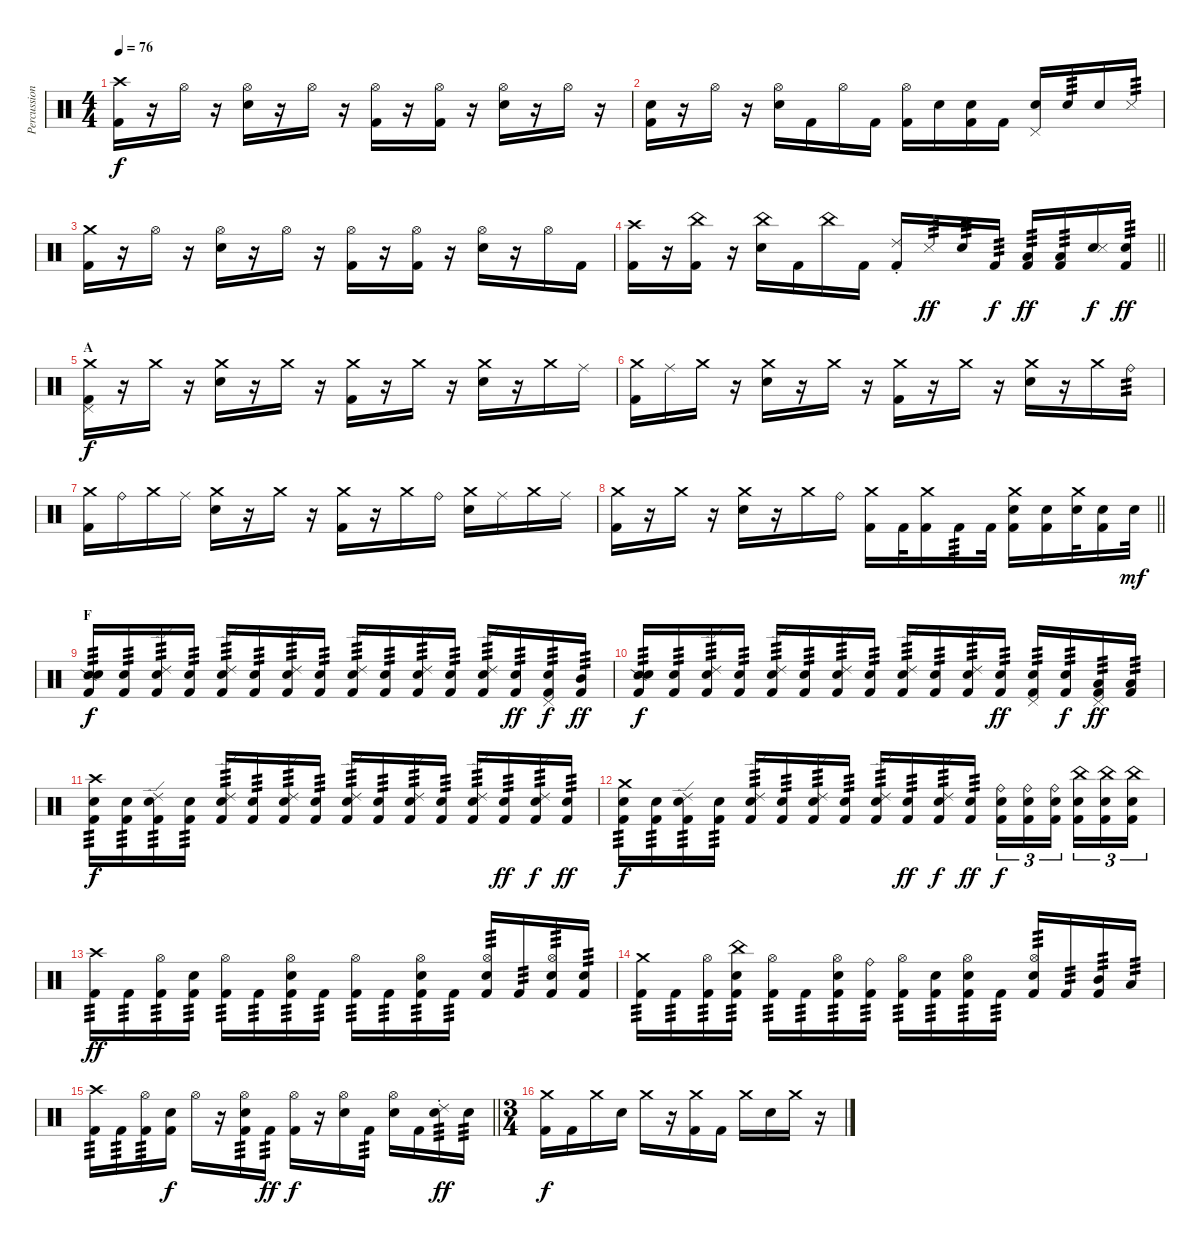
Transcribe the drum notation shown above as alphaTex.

\track ("Percussion" "Percussion") {instrument percussion}
\staff {score}
\articulation defaults
\ts (4 4)
\tempo 76
\clef neutral
\ks c
("Crash high (hit)" "Kick (hit) 2").16{dy f} r.16 "Hi-Hat (open)".16 r.16 ("Hi-Hat (open)" "Snare (hit) 2").16 r.16 "Hi-Hat (open)".16 r.16 ("Hi-Hat (open)" "Kick (hit) 2").16 r.16 ("Hi-Hat (open)" "Kick (hit) 2").16 r.16 ("Hi-Hat (open)" "Snare (hit) 2").16 r.16 "Hi-Hat (open)".16 r.16 |
("Snare (hit)" "Kick (hit) 2").16 r.16 "Hi-Hat (open)".16 r.16 ("Hi-Hat (open)" "Snare (hit) 2").16 "Kick (hit) 2".16 "Hi-Hat (open)".16 "Kick (hit) 2".16 ("Hi-Hat (open)" "Kick (hit) 2").16 "Snare (hit) 2".16 ("Snare (hit)" "Kick (hit) 2").16 "Kick (hit) 2".16 ("Pedal Hi-Hat (hit)" "Snare (hit) 2").16 "Snare (hit)".16{tp 3} "Snare (hit) 2".16 "Metronome (hit)".16{tp 3} |
("Crash medium (hit)" "Kick (hit) 2").16 r.16 "Hi-Hat (open)".16 r.16 ("Hi-Hat (open)" "Snare (hit) 2").16 r.16 "Hi-Hat (open)".16 r.16 ("Hi-Hat (open)" "Kick (hit) 2").16 r.16 ("Hi-Hat (open)" "Kick (hit) 2").16 r.16 ("Hi-Hat (open)" "Snare (hit) 2").16 r.16 "Hi-Hat (open)".16 "Kick (hit) 2".16 |
\barLineRight lightlight
("Crash high (hit)" "Kick (hit) 2").16 r.16 ("China (hit)" "Kick (hit) 2").16 r.16 ("China (hit)" "Snare (hit) 2").16 "Kick (hit) 2".16 "China (hit)".16 "Kick (hit) 2".16 ("Ride (choke) 2" "Kick (hit) 2").16 "Metronome (hit)".16{tp 3 dy ff} "Snare (hit) 2".16{tp 3} "Kick (hit) 2".16{tp 3 dy f} ("Low Tom (hit)" "Kick (hit) 2").16{tp 3 dy ff} ("Low Tom (hit)" "Kick (hit) 2").16{tp 3} ("Snare (hit) 2" "Metronome (hit)").16{bu 60 dy f} ("Snare (hit)" "Kick (hit) 2").16{tp 3 dy ff} |
\section ("" "A")
("Crash medium (hit)" "Pedal Hi-Hat (hit)" "Kick (hit) 2").16{dy f} r.16 "Crash medium (hit)".16 r.16 ("Crash medium (hit)" "Snare (hit) 2").16 r.16 "Crash medium (hit)".16 r.16 ("Crash medium (hit)" "Kick (hit) 2").16 r.16 "Crash medium (hit)".16 r.16 ("Crash medium (hit)" "Snare (hit) 2").16 r.16 "Crash medium (hit)".16 "Ride (middle)".16 |
("Crash medium (hit)" "Kick (hit) 2").16 "Ride (middle)".16 "Crash medium (hit)".16 r.16 ("Crash medium (hit)" "Snare (hit) 2").16 r.16 "Crash medium (hit)".16 r.16 ("Crash medium (hit)" "Kick (hit) 2").16 r.16 "Crash medium (hit)".16 r.16 ("Crash medium (hit)" "Snare (hit) 2").16 r.16 "Crash medium (hit)".16 "Ride (bell)".16{tp 3} |
("Crash medium (hit)" "Kick (hit) 2").16 "Ride (bell)".16 "Crash medium (hit)".16 "Ride (middle)".16 ("Crash medium (hit)" "Snare (hit) 2").16 r.16 "Crash medium (hit)".16 r.16 ("Crash medium (hit)" "Kick (hit) 2").16 r.16 "Crash medium (hit)".16 "Ride (bell)".16 ("Crash medium (hit)" "Snare (hit) 2").16 "Ride (middle)".16 "Crash medium (hit)".16 "Ride (middle)".16 |
\barLineRight lightlight
("Crash medium (hit)" "Kick (hit) 2").16 r.16 "Crash medium (hit)".16 r.16 ("Crash medium (hit)" "Snare (hit) 2").16 r.16 "Crash medium (hit)".16 "Ride (bell)".16 ("Crash medium (hit)" "Kick (hit) 2").16 "Kick (hit) 2".32 ("Crash medium (hit)" "Kick (hit) 2").16 "Kick (hit) 2".16{tp 3} "Kick (hit) 2".32 ("Crash medium (hit)" "Snare (hit) 2" "Kick (hit) 2").16 ("Snare (hit) 2" "Kick (hit) 2").16 ("Crash medium (hit)" "Snare (hit) 2").32 ("Snare (hit) 2" "Kick (hit) 2").16 "Snare (hit) 2".32{dy mf} |
\section ("" "F")
("Snare (side stick) 2" "Snare (hit) 2" "Kick (hit) 2").16{tp 3 dy f} ("Snare (hit) 2" "Kick (hit) 2").16{tp 3} ("Ride (edge) 2" "Snare (hit) 2" "Kick (hit) 2").16{tp 3} ("Snare (hit) 2" "Kick (hit) 2").16{tp 3} ("Ride (edge) 2" "Snare (hit) 2" "Kick (hit) 2").16{tp 3} ("Snare (hit) 2" "Kick (hit) 2").16{tp 3} ("Ride (edge) 2" "Snare (hit) 2" "Kick (hit) 2").16{tp 3} ("Snare (hit) 2" "Kick (hit) 2").16{tp 3} ("Ride (edge) 2" "Snare (hit) 2" "Kick (hit) 2").16{tp 3} ("Snare (hit) 2" "Kick (hit) 2").16{tp 3} ("Ride (edge) 2" "Snare (hit) 2" "Kick (hit) 2").16{tp 3} ("Snare (hit) 2" "Kick (hit) 2").16{tp 3} ("Ride (edge) 2" "Snare (hit) 2" "Kick (hit) 2").16{tp 3} ("Snare (hit) 2" "Kick (hit) 2").16{tp 3 dy ff} ("Pedal Hi-Hat (hit)" "Snare (hit) 2" "Kick (hit) 2").16{tp 3 dy f} ("Mid Tom (hit)" "Kick (hit) 2").16{tp 3 dy ff} |
("Snare (side stick) 2" "Snare (hit) 2" "Kick (hit) 2").16{tp 3 dy f} ("Snare (hit) 2" "Kick (hit) 2").16{tp 3} ("Ride (edge) 2" "Snare (hit) 2" "Kick (hit) 2").16{tp 3} ("Snare (hit) 2" "Kick (hit) 2").16{tp 3} ("Ride (edge) 2" "Snare (hit) 2" "Kick (hit) 2").16{tp 3} ("Snare (hit) 2" "Kick (hit) 2").16{tp 3} ("Ride (edge) 2" "Snare (hit) 2" "Kick (hit) 2").16{tp 3} ("Snare (hit) 2" "Kick (hit) 2").16{tp 3} ("Ride (edge) 2" "Snare (hit) 2" "Kick (hit) 2").16{tp 3} ("Snare (hit) 2" "Kick (hit) 2").16{tp 3} ("Ride (edge) 2" "Snare (hit) 2" "Kick (hit) 2").16{tp 3} ("Snare (hit) 2" "Kick (hit) 2").16{tp 3 dy ff} ("Pedal Hi-Hat (hit)" "Snare (hit) 2" "Kick (hit) 2").16{tp 3} ("Snare (hit) 2" "Kick (hit) 2").16{tp 3 dy f} ("Pedal Hi-Hat (hit)" "Low Floor Tom (hit)" "Kick (hit) 2").16{tp 3 dy ff} ("Low Tom (hit)" "Kick (hit) 2").16{tp 3} |
("Crash high (hit)" "Snare (hit) 2" "Kick (hit) 2").16{tp 3 dy f} ("Snare (hit) 2" "Kick (hit) 2").16{tp 3} ("Ride (edge) 2" "Snare (hit) 2" "Kick (hit) 2").16{tp 3} ("Snare (hit) 2" "Kick (hit) 2").16{tp 3} ("Ride (edge) 2" "Snare (hit) 2" "Kick (hit) 2").16{tp 3} ("Snare (hit) 2" "Kick (hit) 2").16{tp 3} ("Ride (edge) 2" "Snare (hit) 2" "Kick (hit) 2").16{tp 3} ("Snare (hit) 2" "Kick (hit) 2").16{tp 3} ("Ride (edge) 2" "Snare (hit) 2" "Kick (hit) 2").16{tp 3} ("Snare (hit) 2" "Kick (hit) 2").16{tp 3} ("Ride (edge) 2" "Snare (hit) 2" "Kick (hit) 2").16{tp 3} ("Snare (hit) 2" "Kick (hit) 2").16{tp 3} ("Ride (edge) 2" "Snare (hit) 2" "Kick (hit) 2").16{tp 3} ("Snare (hit) 2" "Kick (hit) 2").16{tp 3 dy ff} ("Ride (edge) 2" "Snare (hit) 2" "Kick (hit) 2").16{tp 3 dy f} ("Snare (hit) 2" "Kick (hit) 2").16{tp 3 dy ff} |
("Crash medium (hit)" "Snare (hit) 2" "Kick (hit) 2").16{tp 3 dy f} ("Snare (hit) 2" "Kick (hit) 2").16{tp 3} ("Ride (edge) 2" "Snare (hit) 2" "Kick (hit) 2").16{tp 3} ("Snare (hit) 2" "Kick (hit) 2").16{tp 3} ("Ride (edge) 2" "Snare (hit) 2" "Kick (hit) 2").16{tp 3} ("Snare (hit) 2" "Kick (hit) 2").16{tp 3} ("Ride (edge) 2" "Snare (hit) 2" "Kick (hit) 2").16{tp 3} ("Snare (hit) 2" "Kick (hit) 2").16{tp 3} ("Ride (edge) 2" "Snare (hit) 2" "Kick (hit) 2").16{tp 3} ("Snare (hit) 2" "Kick (hit) 2").16{tp 3 dy ff} ("Ride (edge) 2" "Snare (hit) 2" "Kick (hit) 2").16{tp 3 dy f} ("Snare (hit) 2" "Kick (hit) 2").16{tp 3 dy ff} ("Ride (bell)" "Snare (hit) 2" "Kick (hit) 2").16{tu (3 2) dy f} ("Ride (bell)" "Snare (hit) 2" "Kick (hit) 2").16{tu (3 2)} ("Ride (bell)" "Snare (hit) 2" "Kick (hit) 2").16{tu (3 2) beam splitsecondary} ("China (hit)" "Snare (hit) 2" "Kick (hit) 2").16{tu (3 2)} ("China (hit)" "Snare (hit) 2" "Kick (hit) 2").16{tu (3 2)} ("China (hit)" "Snare (hit) 2" "Kick (hit) 2").16{tu (3 2)} |
("Crash high (hit)" "Kick (hit) 2").16{tp 3 dy ff} "Kick (hit) 2".16{tp 3} ("Hi-Hat (open)" "Kick (hit) 2").16{tp 3} ("Snare (hit) 2" "Kick (hit) 2").16{tp 3} ("Hi-Hat (open)" "Kick (hit) 2").16{tp 3} "Kick (hit) 2".16{tp 3} ("Hi-Hat (open)" "Snare (hit) 2" "Kick (hit) 2").16{tp 3} "Kick (hit) 2".16{tp 3} ("Hi-Hat (open)" "Kick (hit) 2").16{tp 3} "Kick (hit) 2".16{tp 3} ("Hi-Hat (open)" "Snare (hit) 2" "Kick (hit) 2").16{tp 3} "Kick (hit) 2".16{tp 3} ("Hi-Hat (open)" "Snare (hit) 2" "Kick (hit) 2").16{tp 3} "Kick (hit) 2".16{tp 3} ("Hi-Hat (open)" "Snare (hit) 2" "Kick (hit) 2").16{tp 3} ("Snare (hit) 2" "Kick (hit) 2").16{tp 3} |
("Crash medium (hit)" "Kick (hit) 2").16{tp 3} "Kick (hit) 2".16{tp 3} ("Hi-Hat (open)" "Kick (hit) 2").16{tp 3} ("China (hit)" "Snare (hit) 2" "Kick (hit) 2").16{tp 3} ("Hi-Hat (open)" "Kick (hit) 2").16{tp 3} "Kick (hit) 2".16{tp 3} ("Hi-Hat (open)" "Snare (hit) 2" "Kick (hit) 2").16{tp 3} ("Ride (bell)" "Kick (hit) 2").16{tp 3} ("Hi-Hat (open)" "Kick (hit) 2").16{tp 3} ("Snare (hit) 2" "Kick (hit) 2").16{tp 3} ("Hi-Hat (open)" "Snare (hit) 2" "Kick (hit) 2").16{tp 3} "Kick (hit) 2".16{tp 3} ("Hi-Hat (open)" "Snare (hit) 2" "Kick (hit) 2").16{tp 3} "Kick (hit) 2".16{tp 3} ("Mid Tom (hit)" "Kick (hit) 2").16{tp 3} "Low Tom (hit)".16{tp 3} |
\barLineRight lightlight
("Crash high (hit)" "Kick (hit) 2").16{tp 3} "Kick (hit) 2".16{tp 3} ("Hi-Hat (open)" "Kick (hit) 2").16{tp 3} ("Snare (hit) 2" "Kick (hit) 2").16{dy f} "Hi-Hat (open)".16 r.16 ("Hi-Hat (open)" "Snare (hit) 2" "Kick (hit) 2").16{tp 3} "Kick (hit) 2".16{tp 3 dy ff} ("Hi-Hat (open)" "Kick (hit) 2").16{dy f} r.16 ("Hi-Hat (open)" "Snare (hit) 2").16 "Kick (hit) 2".16{tp 3} ("Hi-Hat (open)" "Snare (hit) 2").16 "Kick (hit) 2".16 ("Ride (choke) 2" "Snare (hit) 2").16{tp 3 dy ff} "Snare (hit) 2".16{tp 3} |
\ts (3 4)
("Crash medium (hit)" "Kick (hit) 2").16{dy f} "Kick (hit) 2".16 "Crash medium (hit)".16 "Snare (hit) 2".16 "Crash medium (hit)".16 r.16 ("Crash medium (hit)" "Kick (hit) 2").16 "Kick (hit) 2".16 "Crash medium (hit)".16 "Snare (hit) 2".16 "Crash medium (hit)".16 r.16
